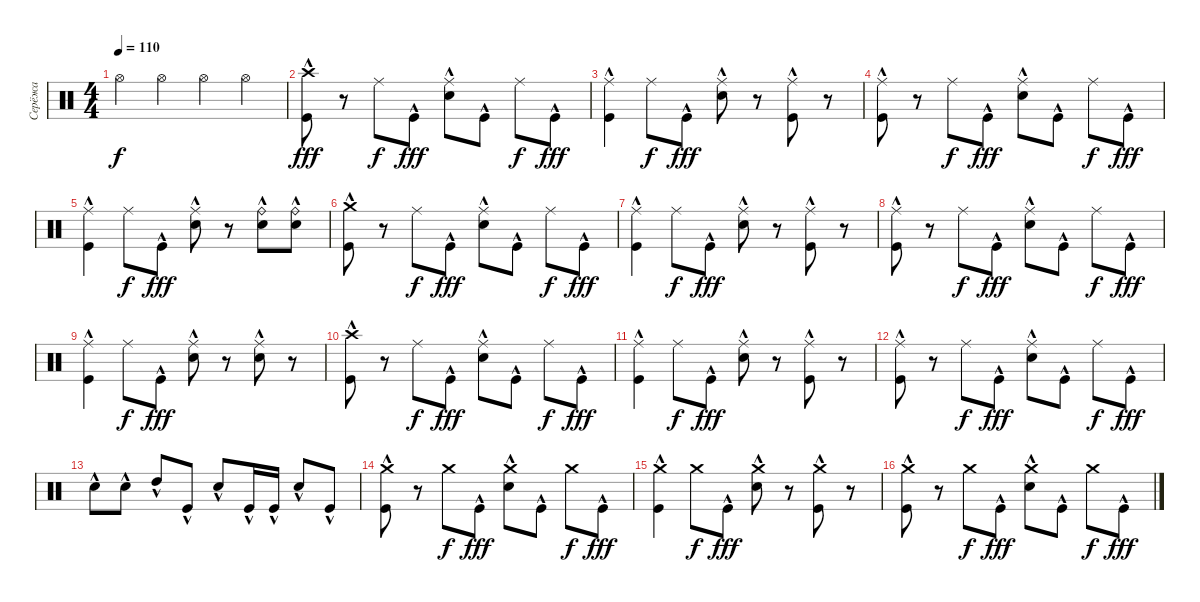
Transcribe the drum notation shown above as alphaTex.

\track ("Серёжа" "Серёжа") {instrument percussion}
\staff {score}
\articulation defaults
\ts (4 4)
\tempo 110
\clef neutral
\ks c "Hi-Hat (open)".4{dy f} "Hi-Hat (open)".4 "Hi-Hat (open)".4 "Hi-Hat (open)".4
|
("Crash high (hit)" "Kick (hit)"{hac}).8{dy fff} r.8 "Ride (middle)".8{dy f} "Kick (hit)"{hac}.8{dy fff} ("Ride (middle)" "Snare (hit) 2"{hac}).8 "Kick (hit)"{hac}.8 "Ride (middle)".8{dy f} "Kick (hit)"{hac}.8{dy fff} |
("Ride (middle)" "Kick (hit)"{hac}).4 "Ride (middle)".8{dy f} "Kick (hit)"{hac}.8{dy fff} ("Ride (middle)" "Snare (hit) 2"{hac}).8 r.8 ("Ride (middle)" "Kick (hit)"{hac}).8 r.8 |
("Ride (middle)" "Kick (hit)"{hac}).8 r.8 "Ride (middle)".8{dy f} "Kick (hit)"{hac}.8{dy fff} ("Ride (middle)" "Snare (hit) 2"{hac}).8 "Kick (hit)"{hac}.8 "Ride (middle)".8{dy f} "Kick (hit)"{hac}.8{dy fff} |
("Ride (middle)" "Kick (hit)"{hac}).4 "Ride (middle)".8{dy f} "Kick (hit)"{hac}.8{dy fff} ("Ride (middle)" "Snare (hit) 2"{hac}).8 r.8 ("Ride (bell)" "Snare (hit) 2"{hac}).8 ("Ride (bell)" "Snare (hit) 2"{hac}).8 |
("Crash medium (hit)"{hac} "Kick (hit)"{hac}).8 r.8 "Ride (middle)".8{dy f} "Kick (hit)"{hac}.8{dy fff} ("Ride (middle)" "Snare (hit) 2"{hac}).8 "Kick (hit)"{hac}.8 "Ride (middle)".8{dy f} "Kick (hit)"{hac}.8{dy fff} |
("Ride (middle)" "Kick (hit)"{hac}).4 "Ride (middle)".8{dy f} "Kick (hit)"{hac}.8{dy fff} ("Ride (middle)" "Snare (hit) 2"{hac}).8 r.8 ("Ride (middle)" "Kick (hit)"{hac}).8 r.8 |
("Ride (middle)" "Kick (hit)"{hac}).8 r.8 "Ride (middle)".8{dy f} "Kick (hit)"{hac}.8{dy fff} ("Ride (middle)" "Snare (hit) 2"{hac}).8 "Kick (hit)"{hac}.8 "Ride (middle)".8{dy f} "Kick (hit)"{hac}.8{dy fff} |
("Ride (middle)" "Kick (hit)"{hac}).4 "Ride (middle)".8{dy f} "Kick (hit)"{hac}.8{dy fff} ("Ride (middle)" "Snare (hit) 2"{hac}).8 r.8 ("Ride (middle)" "Snare (hit) 2"{hac}).8 r.8 |
("Crash high (hit)" "Kick (hit)"{hac}).8 r.8 "Ride (middle)".8{dy f} "Kick (hit)"{hac}.8{dy fff} ("Ride (middle)" "Snare (hit) 2"{hac}).8 "Kick (hit)"{hac}.8 "Ride (middle)".8{dy f} "Kick (hit)"{hac}.8{dy fff} |
("Ride (middle)" "Kick (hit)"{hac}).4 "Ride (middle)".8{dy f} "Kick (hit)"{hac}.8{dy fff} ("Ride (middle)" "Snare (hit) 2"{hac}).8 r.8 ("Ride (middle)" "Kick (hit)"{hac}).8 r.8 |
("Ride (middle)" "Kick (hit)"{hac}).8 r.8 "Ride (middle)".8{dy f} "Kick (hit)"{hac}.8{dy fff} ("Ride (middle)" "Snare (hit) 2"{hac}).8 "Kick (hit)"{hac}.8 "Ride (middle)".8{dy f} "Kick (hit)"{hac}.8{dy fff} |
"Snare (hit) 2"{hac}.8 "Snare (hit) 2"{hac}.8 "High Tom (hit)"{hac}.8 "Kick (hit)"{hac}.8 "Snare (hit) 2"{hac}.8 "Kick (hit)"{hac}.16 "Kick (hit)"{hac}.16 "Snare (hit) 2"{hac}.8 "Kick (hit)"{hac}.8 |
("Crash medium (hit)"{hac} "Kick (hit)"{hac}).8 r.8 "Crash medium (hit)".8{dy f} "Kick (hit)"{hac}.8{dy fff} ("Crash medium (hit)" "Snare (hit) 2"{hac}).8 "Kick (hit)"{hac}.8 "Crash medium (hit)".8{dy f} "Kick (hit)"{hac}.8{dy fff} |
("Crash medium (hit)" "Kick (hit)"{hac}).4 "Crash medium (hit)".8{dy f} "Kick (hit)"{hac}.8{dy fff} ("Crash medium (hit)" "Snare (hit) 2"{hac}).8 r.8 ("Crash medium (hit)" "Kick (hit)"{hac}).8 r.8 |
("Crash medium (hit)" "Kick (hit)"{hac}).8 r.8 "Crash medium (hit)".8{dy f} "Kick (hit)"{hac}.8{dy fff} ("Crash medium (hit)" "Snare (hit) 2"{hac}).8 "Kick (hit)"{hac}.8 "Crash medium (hit)".8{dy f} "Kick (hit)"{hac}.8{dy fff}
